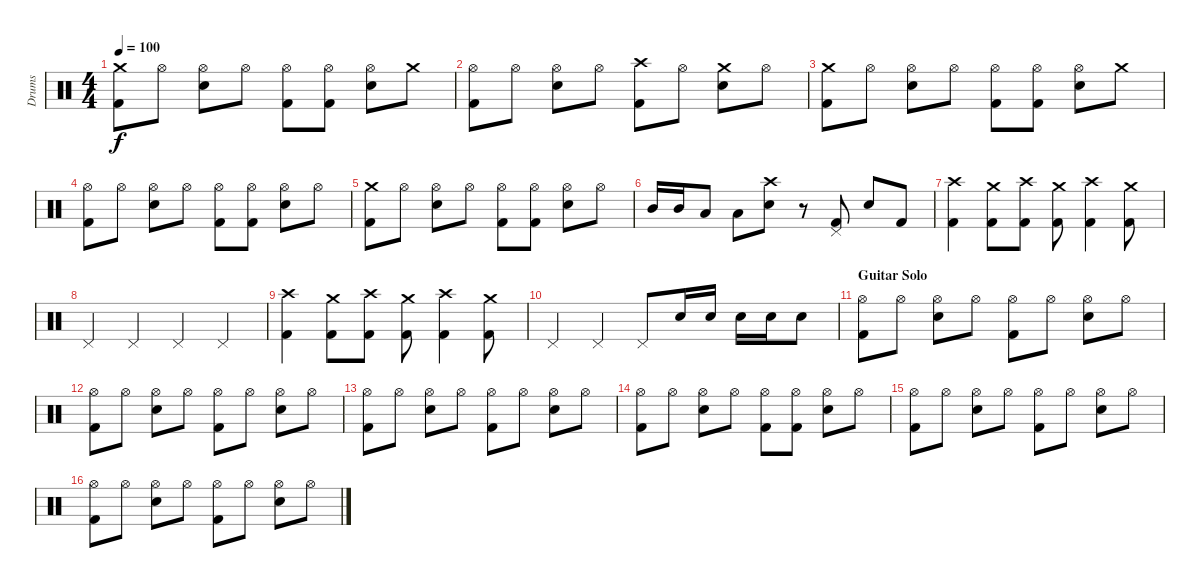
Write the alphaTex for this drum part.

\track ("Drums" "Drums") {instrument percussion}
\staff {score}
\articulation defaults
\ts (4 4)
\tempo 100
\clef neutral
\ks c
("Crash medium (hit)" "Kick (hit) 2").8{dy f} "Hi-Hat (open)".8 ("Hi-Hat (open)" "Electric Snare (hit)").8 "Hi-Hat (open)".8 ("Hi-Hat (open)" "Kick (hit) 2").8 ("Hi-Hat (open)" "Kick (hit) 2").8 ("Hi-Hat (open)" "Electric Snare (hit)").8 "Crash medium (hit)".8 |
("Hi-Hat (open)" "Kick (hit) 2").8 "Hi-Hat (open)".8 ("Hi-Hat (open)" "Electric Snare (hit)").8 "Hi-Hat (open)".8 ("Crash high (hit)" "Kick (hit) 2").8 "Hi-Hat (open)".8 ("Crash medium (hit)" "Electric Snare (hit)").8 "Hi-Hat (open)".8 |
("Crash medium (hit)" "Kick (hit) 2").8 "Hi-Hat (open)".8 ("Hi-Hat (open)" "Electric Snare (hit)").8 "Hi-Hat (open)".8 ("Hi-Hat (open)" "Kick (hit) 2").8 ("Hi-Hat (open)" "Kick (hit) 2").8 ("Hi-Hat (open)" "Electric Snare (hit)").8 "Crash medium (hit)".8 |
("Hi-Hat (open)" "Kick (hit) 2").8 "Hi-Hat (open)".8 ("Hi-Hat (open)" "Electric Snare (hit)").8 "Hi-Hat (open)".8 ("Hi-Hat (open)" "Kick (hit) 2").8 ("Hi-Hat (open)" "Kick (hit) 2").8 ("Hi-Hat (open)" "Electric Snare (hit)").8 "Hi-Hat (open)".8 |
("Crash medium (hit)" "Kick (hit) 2").8 "Hi-Hat (open)".8 ("Hi-Hat (open)" "Electric Snare (hit)").8 "Hi-Hat (open)".8 ("Hi-Hat (open)" "Kick (hit) 2").8 ("Hi-Hat (open)" "Kick (hit) 2").8 ("Hi-Hat (open)" "Electric Snare (hit)").8 "Hi-Hat (open)".8 |
"Mid Tom (hit)".16 "Mid Tom (hit)".16 "Low Tom (hit)".8 "Low Tom (hit)".8 ("Crash high (hit)" "Electric Snare (hit)").8 r.8 ("Pedal Hi-Hat (hit)" "Kick (hit) 2").8 "Electric Snare (hit)".8 "Kick (hit) 2".8 |
("Crash high (hit)" "Kick (hit) 2").4 ("Crash medium (hit)" "Kick (hit) 2").8 ("Crash high (hit)" "Kick (hit) 2").8 ("Crash medium (hit)" "Kick (hit) 2").8 ("Crash high (hit)" "Kick (hit) 2").4 ("Crash medium (hit)" "Kick (hit) 2").8 |
"Pedal Hi-Hat (hit)".4 "Pedal Hi-Hat (hit)".4 "Pedal Hi-Hat (hit)".4 "Pedal Hi-Hat (hit)".4 |
("Crash high (hit)" "Kick (hit) 2").4 ("Crash medium (hit)" "Kick (hit) 2").8 ("Crash high (hit)" "Kick (hit) 2").8 ("Crash medium (hit)" "Kick (hit) 2").8 ("Crash high (hit)" "Kick (hit) 2").4 ("Crash medium (hit)" "Kick (hit) 2").8 |
"Pedal Hi-Hat (hit)".4 "Pedal Hi-Hat (hit)".4 "Pedal Hi-Hat (hit)".8 "Electric Snare (hit)".16 "Electric Snare (hit)".16 "Electric Snare (hit)".16 "Electric Snare (hit)".16 "Electric Snare (hit)".8 |
\section ("" "Guitar Solo")
("Hi-Hat (open)" "Kick (hit) 2").8 "Hi-Hat (open)".8 ("Hi-Hat (open)" "Electric Snare (hit)").8 "Hi-Hat (open)".8 ("Hi-Hat (open)" "Kick (hit) 2").8 "Hi-Hat (open)".8 ("Hi-Hat (open)" "Electric Snare (hit)").8 "Hi-Hat (open)".8 |
("Hi-Hat (open)" "Kick (hit) 2").8 "Hi-Hat (open)".8 ("Hi-Hat (open)" "Electric Snare (hit)").8 "Hi-Hat (open)".8 ("Hi-Hat (open)" "Kick (hit) 2").8 "Hi-Hat (open)".8 ("Hi-Hat (open)" "Electric Snare (hit)").8 "Hi-Hat (open)".8 |
("Hi-Hat (open)" "Kick (hit) 2").8 "Hi-Hat (open)".8 ("Hi-Hat (open)" "Electric Snare (hit)").8 "Hi-Hat (open)".8 ("Hi-Hat (open)" "Kick (hit) 2").8 "Hi-Hat (open)".8 ("Hi-Hat (open)" "Electric Snare (hit)").8 "Hi-Hat (open)".8 |
("Hi-Hat (open)" "Kick (hit) 2").8 "Hi-Hat (open)".8 ("Hi-Hat (open)" "Electric Snare (hit)").8 "Hi-Hat (open)".8 ("Hi-Hat (open)" "Kick (hit) 2").8 ("Hi-Hat (open)" "Kick (hit) 2").8 ("Hi-Hat (open)" "Electric Snare (hit)").8 "Hi-Hat (open)".8 |
("Hi-Hat (open)" "Kick (hit) 2").8 "Hi-Hat (open)".8 ("Hi-Hat (open)" "Electric Snare (hit)").8 "Hi-Hat (open)".8 ("Hi-Hat (open)" "Kick (hit) 2").8 "Hi-Hat (open)".8 ("Hi-Hat (open)" "Electric Snare (hit)").8 "Hi-Hat (open)".8 |
("Hi-Hat (open)" "Kick (hit) 2").8 "Hi-Hat (open)".8 ("Hi-Hat (open)" "Electric Snare (hit)").8 "Hi-Hat (open)".8 ("Hi-Hat (open)" "Kick (hit) 2").8 "Hi-Hat (open)".8 ("Hi-Hat (open)" "Electric Snare (hit)").8 "Hi-Hat (open)".8
